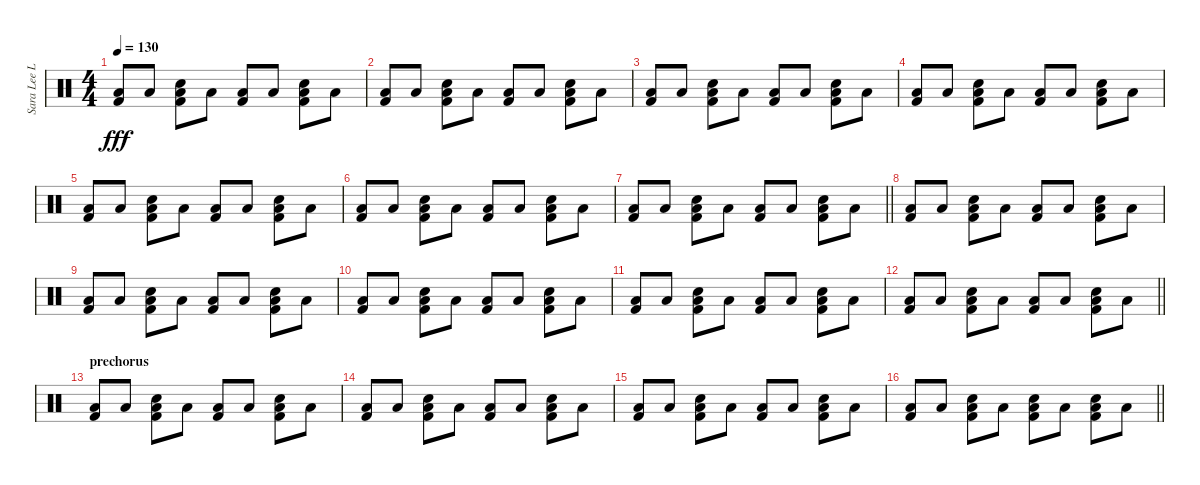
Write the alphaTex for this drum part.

\track ("Sara Lee Lucas" "Sara Lee L") {instrument percussion}
\staff {score}
\articulation defaults
\ts (4 4)
\tempo 130
\clef neutral
\ks c
("Low Tom (hit)" "Kick (hit) 2").8{dy fff} "Low Tom (hit)".8 ("Low Tom (hit)" "Snare (hit) 2" "Kick (hit) 2").8 "Low Tom (hit)".8 ("Low Tom (hit)" "Kick (hit) 2").8 "Low Tom (hit)".8 ("Low Tom (hit)" "Snare (hit) 2" "Kick (hit) 2").8 "Low Tom (hit)".8 |
("Low Tom (hit)" "Kick (hit) 2").8 "Low Tom (hit)".8 ("Low Tom (hit)" "Snare (hit) 2" "Kick (hit) 2").8 "Low Tom (hit)".8 ("Low Tom (hit)" "Kick (hit) 2").8 "Low Tom (hit)".8 ("Low Tom (hit)" "Snare (hit) 2" "Kick (hit) 2").8 "Low Tom (hit)".8 |
("Low Tom (hit)" "Kick (hit) 2").8 "Low Tom (hit)".8 ("Low Tom (hit)" "Snare (hit) 2" "Kick (hit) 2").8 "Low Tom (hit)".8 ("Low Tom (hit)" "Kick (hit) 2").8 "Low Tom (hit)".8 ("Low Tom (hit)" "Snare (hit) 2" "Kick (hit) 2").8 "Low Tom (hit)".8 |
("Low Tom (hit)" "Kick (hit) 2").8 "Low Tom (hit)".8 ("Low Tom (hit)" "Snare (hit) 2" "Kick (hit) 2").8 "Low Tom (hit)".8 ("Low Tom (hit)" "Kick (hit) 2").8 "Low Tom (hit)".8 ("Low Tom (hit)" "Snare (hit) 2" "Kick (hit) 2").8 "Low Tom (hit)".8 |
("Low Tom (hit)" "Kick (hit) 2").8 "Low Tom (hit)".8 ("Low Tom (hit)" "Snare (hit) 2" "Kick (hit) 2").8 "Low Tom (hit)".8 ("Low Tom (hit)" "Kick (hit) 2").8 "Low Tom (hit)".8 ("Low Tom (hit)" "Snare (hit) 2" "Kick (hit) 2").8 "Low Tom (hit)".8 |
("Low Tom (hit)" "Kick (hit) 2").8 "Low Tom (hit)".8 ("Low Tom (hit)" "Snare (hit) 2" "Kick (hit) 2").8 "Low Tom (hit)".8 ("Low Tom (hit)" "Kick (hit) 2").8 "Low Tom (hit)".8 ("Low Tom (hit)" "Snare (hit) 2" "Kick (hit) 2").8 "Low Tom (hit)".8 |
\barLineRight lightlight
("Low Tom (hit)" "Kick (hit) 2").8 "Low Tom (hit)".8 ("Low Tom (hit)" "Snare (hit) 2" "Kick (hit) 2").8 "Low Tom (hit)".8 ("Low Tom (hit)" "Kick (hit) 2").8 "Low Tom (hit)".8 ("Low Tom (hit)" "Snare (hit) 2" "Kick (hit) 2").8 "Low Tom (hit)".8 |
("Low Tom (hit)" "Kick (hit) 2").8 "Low Tom (hit)".8 ("Low Tom (hit)" "Snare (hit) 2" "Kick (hit) 2").8 "Low Tom (hit)".8 ("Low Tom (hit)" "Kick (hit) 2").8 "Low Tom (hit)".8 ("Low Tom (hit)" "Snare (hit) 2" "Kick (hit) 2").8 "Low Tom (hit)".8 |
("Low Tom (hit)" "Kick (hit) 2").8 "Low Tom (hit)".8 ("Low Tom (hit)" "Snare (hit) 2" "Kick (hit) 2").8 "Low Tom (hit)".8 ("Low Tom (hit)" "Kick (hit) 2").8 "Low Tom (hit)".8 ("Low Tom (hit)" "Snare (hit) 2" "Kick (hit) 2").8 "Low Tom (hit)".8 |
("Low Tom (hit)" "Kick (hit) 2").8 "Low Tom (hit)".8 ("Low Tom (hit)" "Snare (hit) 2" "Kick (hit) 2").8 "Low Tom (hit)".8 ("Low Tom (hit)" "Kick (hit) 2").8 "Low Tom (hit)".8 ("Low Tom (hit)" "Snare (hit) 2" "Kick (hit) 2").8 "Low Tom (hit)".8 |
("Low Tom (hit)" "Kick (hit) 2").8 "Low Tom (hit)".8 ("Low Tom (hit)" "Snare (hit) 2" "Kick (hit) 2").8 "Low Tom (hit)".8 ("Low Tom (hit)" "Kick (hit) 2").8 "Low Tom (hit)".8 ("Low Tom (hit)" "Snare (hit) 2" "Kick (hit) 2").8 "Low Tom (hit)".8 |
\barLineRight lightlight
("Low Tom (hit)" "Kick (hit) 2").8 "Low Tom (hit)".8 ("Low Tom (hit)" "Snare (hit) 2" "Kick (hit) 2").8 "Low Tom (hit)".8 ("Low Tom (hit)" "Kick (hit) 2").8 "Low Tom (hit)".8 ("Low Tom (hit)" "Snare (hit) 2" "Kick (hit) 2").8 "Low Tom (hit)".8 |
\section ("" "prechorus")
("Low Tom (hit)" "Kick (hit) 2").8 "Low Tom (hit)".8 ("Low Tom (hit)" "Snare (hit) 2" "Kick (hit) 2").8 "Low Tom (hit)".8 ("Low Tom (hit)" "Kick (hit) 2").8 "Low Tom (hit)".8 ("Low Tom (hit)" "Snare (hit) 2" "Kick (hit) 2").8 "Low Tom (hit)".8 |
("Low Tom (hit)" "Kick (hit) 2").8 "Low Tom (hit)".8 ("Low Tom (hit)" "Snare (hit) 2" "Kick (hit) 2").8 "Low Tom (hit)".8 ("Low Tom (hit)" "Kick (hit) 2").8 "Low Tom (hit)".8 ("Low Tom (hit)" "Snare (hit) 2" "Kick (hit) 2").8 "Low Tom (hit)".8 |
("Low Tom (hit)" "Kick (hit) 2").8 "Low Tom (hit)".8 ("Low Tom (hit)" "Snare (hit) 2" "Kick (hit) 2").8 "Low Tom (hit)".8 ("Low Tom (hit)" "Kick (hit) 2").8 "Low Tom (hit)".8 ("Low Tom (hit)" "Snare (hit) 2" "Kick (hit) 2").8 "Low Tom (hit)".8 |
\barLineRight lightlight
("Low Tom (hit)" "Kick (hit) 2").8 "Low Tom (hit)".8 ("Low Tom (hit)" "Snare (hit) 2" "Kick (hit) 2").8 "Low Tom (hit)".8 ("Low Tom (hit)" "Snare (hit) 2" "Kick (hit) 2").8 "Low Tom (hit)".8 ("Low Tom (hit)" "Snare (hit) 2" "Kick (hit) 2").8 "Low Tom (hit)".8
